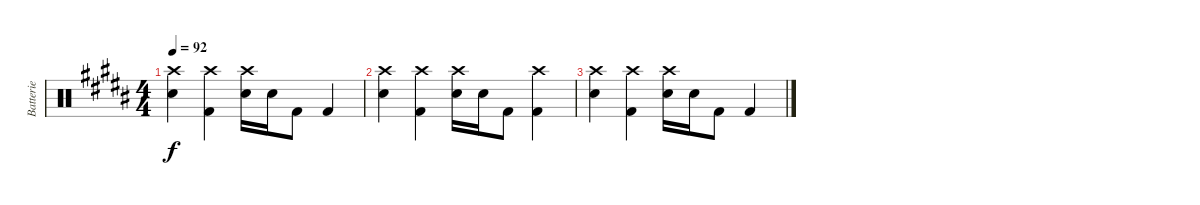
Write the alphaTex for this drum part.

\track ("Batterie" "Batterie") {instrument percussion}
\staff {score}
\articulation defaults
\ts (4 4)
\tempo 92
\clef neutral
\ks b
("Crash high (hit)" "Snare (hit) 2").4{dy f} ("Crash high (hit)" "Kick (hit) 2").4 ("Crash high (hit)" "Snare (hit) 2").16 "Snare (hit) 2".16 "Kick (hit) 2".8 "Kick (hit) 2".4 |
("Crash high (hit)" "Snare (hit) 2").4 ("Crash high (hit)" "Kick (hit) 2").4 ("Crash high (hit)" "Snare (hit) 2").16 "Snare (hit) 2".16 "Kick (hit) 2".8 ("Crash high (hit)" "Kick (hit) 2").4 |
("Crash high (hit)" "Snare (hit) 2").4 ("Crash high (hit)" "Kick (hit) 2").4 ("Crash high (hit)" "Snare (hit) 2").16 "Snare (hit) 2".16 "Kick (hit) 2".8 "Kick (hit) 2".4
